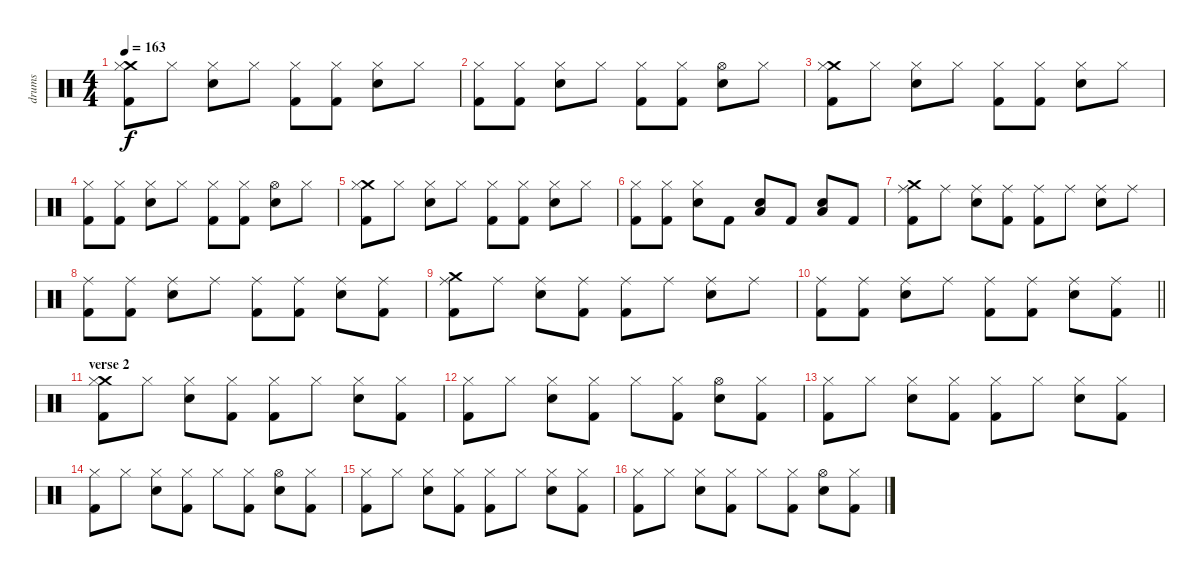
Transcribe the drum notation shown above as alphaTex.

\track ("drums" "drums") {instrument percussion}
\staff {score}
\articulation defaults
\ts (4 4)
\tempo 163
\clef neutral
\ks c
("Crash medium (hit)" "Hi-Hat (closed)" "Kick (hit) 2").8{dy f} "Hi-Hat (closed)".8 ("Hi-Hat (closed)" "Electric Snare (hit)").8 "Hi-Hat (closed)".8 ("Hi-Hat (closed)" "Kick (hit) 2").8 ("Hi-Hat (closed)" "Kick (hit) 2").8 ("Hi-Hat (closed)" "Electric Snare (hit)").8 "Hi-Hat (closed)".8 |
("Hi-Hat (closed)" "Kick (hit) 2").8 ("Hi-Hat (closed)" "Kick (hit) 2").8 ("Hi-Hat (closed)" "Electric Snare (hit)").8 "Hi-Hat (closed)".8 ("Hi-Hat (closed)" "Kick (hit) 2").8 ("Hi-Hat (closed)" "Kick (hit) 2").8 ("Hi-Hat (open)" "Electric Snare (hit)").8 "Hi-Hat (closed)".8 |
("Crash medium (hit)" "Hi-Hat (closed)" "Kick (hit) 2").8 "Hi-Hat (closed)".8 ("Hi-Hat (closed)" "Electric Snare (hit)").8 "Hi-Hat (closed)".8 ("Hi-Hat (closed)" "Kick (hit) 2").8 ("Hi-Hat (closed)" "Kick (hit) 2").8 ("Hi-Hat (closed)" "Electric Snare (hit)").8 "Hi-Hat (closed)".8 |
("Hi-Hat (closed)" "Kick (hit) 2").8 ("Hi-Hat (closed)" "Kick (hit) 2").8 ("Hi-Hat (closed)" "Electric Snare (hit)").8 "Hi-Hat (closed)".8 ("Hi-Hat (closed)" "Kick (hit) 2").8 ("Hi-Hat (closed)" "Kick (hit) 2").8 ("Hi-Hat (open)" "Electric Snare (hit)").8 "Hi-Hat (closed)".8 |
("Crash medium (hit)" "Hi-Hat (closed)" "Kick (hit) 2").8 "Hi-Hat (closed)".8 ("Hi-Hat (closed)" "Electric Snare (hit)").8 "Hi-Hat (closed)".8 ("Hi-Hat (closed)" "Kick (hit) 2").8 ("Hi-Hat (closed)" "Kick (hit) 2").8 ("Hi-Hat (closed)" "Electric Snare (hit)").8 "Hi-Hat (closed)".8 |
("Hi-Hat (closed)" "Kick (hit) 2").8 ("Hi-Hat (closed)" "Kick (hit) 2").8 ("Hi-Hat (closed)" "Electric Snare (hit)").8 "Kick (hit) 2".8 ("Low Tom (hit)" "Electric Snare (hit)").8 "Kick (hit) 2".8 ("Low Tom (hit)" "Electric Snare (hit)").8 "Kick (hit) 2".8 |
("Crash medium (hit)" "Ride (middle)" "Kick (hit) 2").8 "Ride (middle)".8 ("Ride (middle)" "Electric Snare (hit)").8 ("Ride (middle)" "Kick (hit) 2").8 ("Ride (middle)" "Kick (hit) 2").8 "Ride (middle)".8 ("Ride (middle)" "Electric Snare (hit)").8 "Ride (middle)".8 |
("Ride (middle)" "Kick (hit) 2").8 ("Ride (middle)" "Kick (hit) 2").8 ("Ride (middle)" "Electric Snare (hit)").8 "Ride (middle)".8 ("Ride (middle)" "Kick (hit) 2").8 ("Ride (middle)" "Kick (hit) 2").8 ("Ride (middle)" "Electric Snare (hit)").8 ("Ride (middle)" "Kick (hit) 2").8 |
("Crash medium (hit)" "Ride (middle)" "Kick (hit) 2").8 "Ride (middle)".8 ("Ride (middle)" "Electric Snare (hit)").8 ("Ride (middle)" "Kick (hit) 2").8 ("Ride (middle)" "Kick (hit) 2").8 "Ride (middle)".8 ("Ride (middle)" "Electric Snare (hit)").8 "Ride (middle)".8 |
\barLineRight lightlight
("Ride (middle)" "Kick (hit) 2").8 ("Ride (middle)" "Kick (hit) 2").8 ("Ride (middle)" "Electric Snare (hit)").8 "Ride (middle)".8 ("Ride (middle)" "Kick (hit) 2").8 ("Ride (middle)" "Kick (hit) 2").8 ("Ride (middle)" "Electric Snare (hit)").8 ("Ride (middle)" "Kick (hit) 2").8 |
\section ("" "verse 2")
("Crash medium (hit)" "Hi-Hat (closed)" "Kick (hit) 2").8 "Hi-Hat (closed)".8 ("Hi-Hat (closed)" "Electric Snare (hit)").8 ("Hi-Hat (closed)" "Kick (hit) 2").8 ("Hi-Hat (closed)" "Kick (hit) 2").8 "Hi-Hat (closed)".8 ("Hi-Hat (closed)" "Electric Snare (hit)").8 ("Hi-Hat (closed)" "Kick (hit) 2").8 |
("Hi-Hat (closed)" "Kick (hit) 2").8 "Hi-Hat (closed)".8 ("Hi-Hat (closed)" "Electric Snare (hit)").8 ("Hi-Hat (closed)" "Kick (hit) 2").8 "Hi-Hat (closed)".8 ("Hi-Hat (closed)" "Kick (hit) 2").8 ("Hi-Hat (open)" "Electric Snare (hit)").8 ("Hi-Hat (closed)" "Kick (hit) 2").8 |
("Hi-Hat (closed)" "Kick (hit) 2").8 "Hi-Hat (closed)".8 ("Hi-Hat (closed)" "Electric Snare (hit)").8 ("Hi-Hat (closed)" "Kick (hit) 2").8 ("Hi-Hat (closed)" "Kick (hit) 2").8 "Hi-Hat (closed)".8 ("Hi-Hat (closed)" "Electric Snare (hit)").8 ("Hi-Hat (closed)" "Kick (hit) 2").8 |
("Hi-Hat (closed)" "Kick (hit) 2").8 "Hi-Hat (closed)".8 ("Hi-Hat (closed)" "Electric Snare (hit)").8 ("Hi-Hat (closed)" "Kick (hit) 2").8 "Hi-Hat (closed)".8 ("Hi-Hat (closed)" "Kick (hit) 2").8 ("Hi-Hat (open)" "Electric Snare (hit)").8 ("Hi-Hat (closed)" "Kick (hit) 2").8 |
("Hi-Hat (closed)" "Kick (hit) 2").8 "Hi-Hat (closed)".8 ("Hi-Hat (closed)" "Electric Snare (hit)").8 ("Hi-Hat (closed)" "Kick (hit) 2").8 ("Hi-Hat (closed)" "Kick (hit) 2").8 "Hi-Hat (closed)".8 ("Hi-Hat (closed)" "Electric Snare (hit)").8 ("Hi-Hat (closed)" "Kick (hit) 2").8 |
("Hi-Hat (closed)" "Kick (hit) 2").8 "Hi-Hat (closed)".8 ("Hi-Hat (closed)" "Electric Snare (hit)").8 ("Hi-Hat (closed)" "Kick (hit) 2").8 "Hi-Hat (closed)".8 ("Hi-Hat (closed)" "Kick (hit) 2").8 ("Hi-Hat (open)" "Electric Snare (hit)").8 ("Hi-Hat (closed)" "Kick (hit) 2").8
